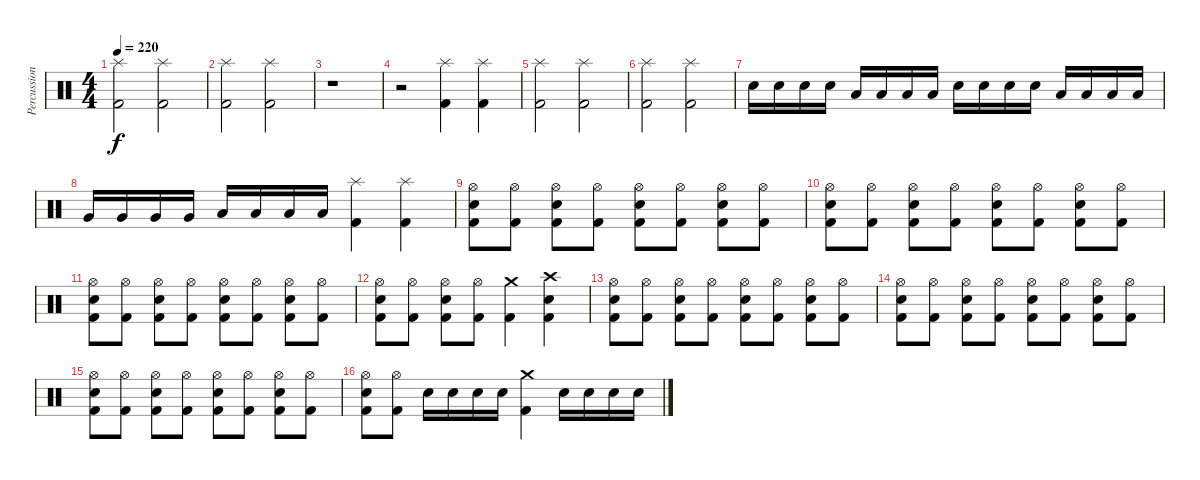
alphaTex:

\track ("Percussions" "Percussion") {instrument percussion}
\staff {score}
\articulation defaults
\ts (4 4)
\tempo 220
\clef neutral
\ks c
("Kick (hit) 2" "Splash (hit)").2{dy f} ("Kick (hit) 2" "Splash (hit)").2 |
("Kick (hit) 2" "Splash (hit)").2 ("Kick (hit) 2" "Splash (hit)").2 |
r.1 |
r.2 ("Kick (hit) 2" "Splash (hit)").4 ("Kick (hit) 2" "Splash (hit)").4 |
("Kick (hit) 2" "Splash (hit)").2 ("Kick (hit) 2" "Splash (hit)").2 |
("Kick (hit) 2" "Splash (hit)").2 ("Kick (hit) 2" "Splash (hit)").2 |
"Snare (hit) 2".16 "Snare (hit) 2".16 "Snare (hit) 2".16 "Snare (hit) 2".16 "Low Tom (hit)".16 "Low Tom (hit)".16 "Low Tom (hit)".16 "Low Tom (hit)".16 "Snare (hit) 2".16 "Snare (hit) 2".16 "Snare (hit) 2".16 "Snare (hit) 2".16 "Low Tom (hit)".16 "Low Tom (hit)".16 "Low Tom (hit)".16 "Low Tom (hit)".16 |
"Very Low Tom (hit)".16 "Very Low Tom (hit)".16 "Very Low Tom (hit)".16 "Very Low Tom (hit)".16 "Low Floor Tom (hit)".16 "Low Floor Tom (hit)".16 "Low Floor Tom (hit)".16 "Low Floor Tom (hit)".16 ("Kick (hit) 2" "Splash (hit)").4 ("Kick (hit) 2" "Splash (hit)").4 |
("Kick (hit) 2" "Snare (hit) 2" "Hi-Hat (open)").8 ("Kick (hit) 2" "Hi-Hat (open)").8 ("Kick (hit) 2" "Snare (hit) 2" "Hi-Hat (open)").8 ("Kick (hit) 2" "Hi-Hat (open)").8 ("Kick (hit) 2" "Snare (hit) 2" "Hi-Hat (open)").8 ("Kick (hit) 2" "Hi-Hat (open)").8 ("Kick (hit) 2" "Snare (hit) 2" "Hi-Hat (open)").8 ("Kick (hit) 2" "Hi-Hat (open)").8 |
("Kick (hit) 2" "Snare (hit) 2" "Hi-Hat (open)").8 ("Kick (hit) 2" "Hi-Hat (open)").8 ("Kick (hit) 2" "Snare (hit) 2" "Hi-Hat (open)").8 ("Kick (hit) 2" "Hi-Hat (open)").8 ("Kick (hit) 2" "Snare (hit) 2" "Hi-Hat (open)").8 ("Kick (hit) 2" "Hi-Hat (open)").8 ("Kick (hit) 2" "Snare (hit) 2" "Hi-Hat (open)").8 ("Kick (hit) 2" "Hi-Hat (open)").8 |
("Kick (hit) 2" "Snare (hit) 2" "Hi-Hat (open)").8 ("Kick (hit) 2" "Hi-Hat (open)").8 ("Kick (hit) 2" "Snare (hit) 2" "Hi-Hat (open)").8 ("Kick (hit) 2" "Hi-Hat (open)").8 ("Kick (hit) 2" "Snare (hit) 2" "Hi-Hat (open)").8 ("Kick (hit) 2" "Hi-Hat (open)").8 ("Kick (hit) 2" "Snare (hit) 2" "Hi-Hat (open)").8 ("Kick (hit) 2" "Hi-Hat (open)").8 |
("Kick (hit) 2" "Snare (hit) 2" "Hi-Hat (open)").8 ("Kick (hit) 2" "Hi-Hat (open)").8 ("Kick (hit) 2" "Snare (hit) 2" "Hi-Hat (open)").8 ("Kick (hit) 2" "Hi-Hat (open)").8 ("Kick (hit) 2" "Crash medium (hit)").4 ("Kick (hit) 2" "Snare (hit) 2" "Crash high (hit)").4 |
("Kick (hit) 2" "Snare (hit) 2" "Hi-Hat (open)").8 ("Kick (hit) 2" "Hi-Hat (open)").8 ("Kick (hit) 2" "Snare (hit) 2" "Hi-Hat (open)").8 ("Kick (hit) 2" "Hi-Hat (open)").8 ("Kick (hit) 2" "Snare (hit) 2" "Hi-Hat (open)").8 ("Kick (hit) 2" "Hi-Hat (open)").8 ("Kick (hit) 2" "Snare (hit) 2" "Hi-Hat (open)").8 ("Kick (hit) 2" "Hi-Hat (open)").8 |
("Kick (hit) 2" "Snare (hit) 2" "Hi-Hat (open)").8 ("Kick (hit) 2" "Hi-Hat (open)").8 ("Kick (hit) 2" "Snare (hit) 2" "Hi-Hat (open)").8 ("Kick (hit) 2" "Hi-Hat (open)").8 ("Kick (hit) 2" "Snare (hit) 2" "Hi-Hat (open)").8 ("Kick (hit) 2" "Hi-Hat (open)").8 ("Kick (hit) 2" "Snare (hit) 2" "Hi-Hat (open)").8 ("Kick (hit) 2" "Hi-Hat (open)").8 |
("Kick (hit) 2" "Snare (hit) 2" "Hi-Hat (open)").8 ("Kick (hit) 2" "Hi-Hat (open)").8 ("Kick (hit) 2" "Snare (hit) 2" "Hi-Hat (open)").8 ("Kick (hit) 2" "Hi-Hat (open)").8 ("Kick (hit) 2" "Snare (hit) 2" "Hi-Hat (open)").8 ("Kick (hit) 2" "Hi-Hat (open)").8 ("Kick (hit) 2" "Snare (hit) 2" "Hi-Hat (open)").8 ("Kick (hit) 2" "Hi-Hat (open)").8 |
("Kick (hit) 2" "Snare (hit) 2" "Hi-Hat (open)").8 ("Kick (hit) 2" "Hi-Hat (open)").8 "Snare (hit) 2".16 "Snare (hit) 2".16 "Snare (hit) 2".16 "Snare (hit) 2".16 ("Kick (hit) 2" "Crash medium (hit)").4 "Snare (hit) 2".16 "Snare (hit) 2".16 "Snare (hit) 2".16 "Snare (hit) 2".16
